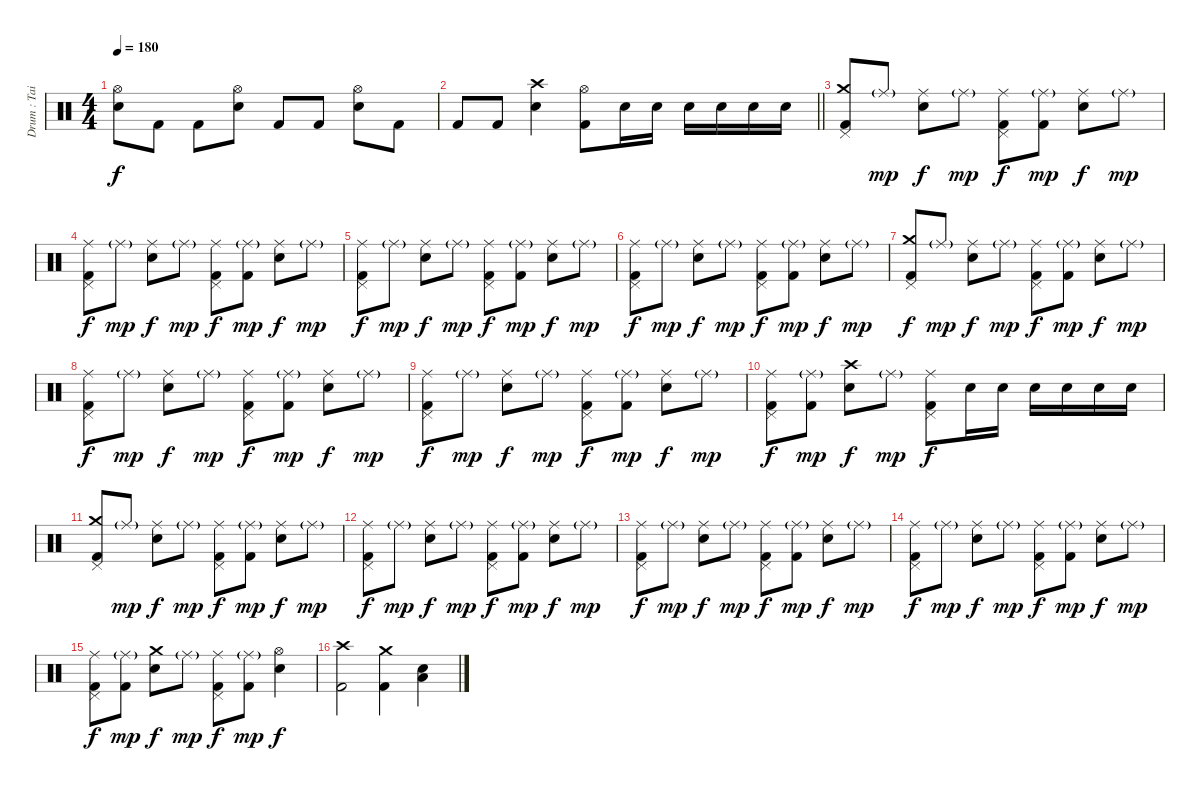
\track ("Drum : Tainaka Ritsu - Chan" "Drum : Tai") {instrument percussion}
\staff {score}
\articulation defaults
\ts (4 4)
\tempo 180
\clef neutral
\ks c
("Hi-Hat (open)" "Electric Snare (hit)").8{dy f} "Kick (hit) 2".8 "Kick (hit) 2".8 ("Hi-Hat (open)" "Electric Snare (hit)").8 "Kick (hit) 2".8 "Kick (hit) 2".8 ("Hi-Hat (open)" "Electric Snare (hit)").8 "Kick (hit) 2".8 |
\barLineRight lightlight "Kick (hit) 2".8 "Kick (hit) 2".8
("Crash high (hit)" "Electric Snare (hit)").4 ("Hi-Hat (open)" "Kick (hit) 2").8 "Electric Snare (hit)".16 "Electric Snare (hit)".16 "Electric Snare (hit)".16 "Electric Snare (hit)".16 "Electric Snare (hit)".16 "Electric Snare (hit)".16 |
("Crash medium (hit)" "Pedal Hi-Hat (hit)" "Kick (hit) 2").8 "Ride (middle)"{g}.8{dy mp} ("Ride (middle)" "Electric Snare (hit)").8{dy f} "Ride (middle)"{g}.8{dy mp} ("Ride (middle)" "Pedal Hi-Hat (hit)" "Kick (hit) 2").8{dy f} ("Ride (middle)"{g} "Kick (hit) 2").8{dy mp} ("Ride (middle)" "Electric Snare (hit)").8{dy f} "Ride (middle)"{g}.8{dy mp} |
("Ride (middle)" "Pedal Hi-Hat (hit)" "Kick (hit) 2").8{dy f} "Ride (middle)"{g}.8{dy mp} ("Ride (middle)" "Electric Snare (hit)").8{dy f} "Ride (middle)"{g}.8{dy mp} ("Ride (middle)" "Pedal Hi-Hat (hit)" "Kick (hit) 2").8{dy f} ("Ride (middle)"{g} "Kick (hit) 2").8{dy mp} ("Ride (middle)" "Electric Snare (hit)").8{dy f} "Ride (middle)"{g}.8{dy mp} |
("Ride (middle)" "Pedal Hi-Hat (hit)" "Kick (hit) 2").8{dy f} "Ride (middle)"{g}.8{dy mp} ("Ride (middle)" "Electric Snare (hit)").8{dy f} "Ride (middle)"{g}.8{dy mp} ("Ride (middle)" "Pedal Hi-Hat (hit)" "Kick (hit) 2").8{dy f} ("Ride (middle)"{g} "Kick (hit) 2").8{dy mp} ("Ride (middle)" "Electric Snare (hit)").8{dy f} "Ride (middle)"{g}.8{dy mp} |
("Ride (middle)" "Pedal Hi-Hat (hit)" "Kick (hit) 2").8{dy f} "Ride (middle)"{g}.8{dy mp} ("Ride (middle)" "Electric Snare (hit)").8{dy f} "Ride (middle)"{g}.8{dy mp} ("Ride (middle)" "Pedal Hi-Hat (hit)" "Kick (hit) 2").8{dy f} ("Ride (middle)"{g} "Kick (hit) 2").8{dy mp} ("Ride (middle)" "Electric Snare (hit)").8{dy f} "Ride (middle)"{g}.8{dy mp} |
("Crash medium (hit)" "Pedal Hi-Hat (hit)" "Kick (hit) 2").8{dy f} "Ride (middle)"{g}.8{dy mp} ("Ride (middle)" "Electric Snare (hit)").8{dy f} "Ride (middle)"{g}.8{dy mp} ("Ride (middle)" "Pedal Hi-Hat (hit)" "Kick (hit) 2").8{dy f} ("Ride (middle)"{g} "Kick (hit) 2").8{dy mp} ("Ride (middle)" "Electric Snare (hit)").8{dy f} "Ride (middle)"{g}.8{dy mp} |
("Ride (middle)" "Pedal Hi-Hat (hit)" "Kick (hit) 2").8{dy f} "Ride (middle)"{g}.8{dy mp} ("Ride (middle)" "Electric Snare (hit)").8{dy f} "Ride (middle)"{g}.8{dy mp} ("Ride (middle)" "Pedal Hi-Hat (hit)" "Kick (hit) 2").8{dy f} ("Ride (middle)"{g} "Kick (hit) 2").8{dy mp} ("Ride (middle)" "Electric Snare (hit)").8{dy f} "Ride (middle)"{g}.8{dy mp} |
("Ride (middle)" "Pedal Hi-Hat (hit)" "Kick (hit) 2").8{dy f} "Ride (middle)"{g}.8{dy mp} ("Ride (middle)" "Electric Snare (hit)").8{dy f} "Ride (middle)"{g}.8{dy mp} ("Ride (middle)" "Pedal Hi-Hat (hit)" "Kick (hit) 2").8{dy f} ("Ride (middle)"{g} "Kick (hit) 2").8{dy mp} ("Ride (middle)" "Electric Snare (hit)").8{dy f} "Ride (middle)"{g}.8{dy mp} |
("Ride (middle)" "Pedal Hi-Hat (hit)" "Kick (hit) 2").8{dy f} ("Ride (middle)"{g} "Kick (hit) 2").8{dy mp} ("Crash high (hit)" "Electric Snare (hit)").8{dy f} "Ride (middle)"{g}.8{dy mp} ("Ride (middle)" "Pedal Hi-Hat (hit)" "Kick (hit) 2").8{dy f} "Electric Snare (hit)".16 "Electric Snare (hit)".16 "Electric Snare (hit)".16 "Electric Snare (hit)".16 "Electric Snare (hit)".16 "Electric Snare (hit)".16 |
("Crash medium (hit)" "Pedal Hi-Hat (hit)" "Kick (hit) 2").8 "Ride (middle)"{g}.8{dy mp} ("Ride (middle)" "Electric Snare (hit)").8{dy f} "Ride (middle)"{g}.8{dy mp} ("Ride (middle)" "Pedal Hi-Hat (hit)" "Kick (hit) 2").8{dy f} ("Ride (middle)"{g} "Kick (hit) 2").8{dy mp} ("Ride (middle)" "Electric Snare (hit)").8{dy f} "Ride (middle)"{g}.8{dy mp} |
("Ride (middle)" "Pedal Hi-Hat (hit)" "Kick (hit) 2").8{dy f} "Ride (middle)"{g}.8{dy mp} ("Ride (middle)" "Electric Snare (hit)").8{dy f} "Ride (middle)"{g}.8{dy mp} ("Ride (middle)" "Pedal Hi-Hat (hit)" "Kick (hit) 2").8{dy f} ("Ride (middle)"{g} "Kick (hit) 2").8{dy mp} ("Ride (middle)" "Electric Snare (hit)").8{dy f} "Ride (middle)"{g}.8{dy mp} |
("Ride (middle)" "Pedal Hi-Hat (hit)" "Kick (hit) 2").8{dy f} "Ride (middle)"{g}.8{dy mp} ("Ride (middle)" "Electric Snare (hit)").8{dy f} "Ride (middle)"{g}.8{dy mp} ("Ride (middle)" "Pedal Hi-Hat (hit)" "Kick (hit) 2").8{dy f} ("Ride (middle)"{g} "Kick (hit) 2").8{dy mp} ("Ride (middle)" "Electric Snare (hit)").8{dy f} "Ride (middle)"{g}.8{dy mp} |
("Ride (middle)" "Pedal Hi-Hat (hit)" "Kick (hit) 2").8{dy f} "Ride (middle)"{g}.8{dy mp} ("Ride (middle)" "Electric Snare (hit)").8{dy f} "Ride (middle)"{g}.8{dy mp} ("Ride (middle)" "Pedal Hi-Hat (hit)" "Kick (hit) 2").8{dy f} ("Ride (middle)"{g} "Kick (hit) 2").8{dy mp} ("Ride (middle)" "Electric Snare (hit)").8{dy f} "Ride (middle)"{g}.8{dy mp} |
("Ride (middle)" "Pedal Hi-Hat (hit)" "Kick (hit) 2").8{dy f} ("Ride (middle)"{g} "Kick (hit) 2").8{dy mp} ("Crash medium (hit)" "Electric Snare (hit)").8{dy f} "Ride (middle)"{g}.8{dy mp} ("Ride (middle)" "Pedal Hi-Hat (hit)" "Kick (hit) 2").8{dy f} ("Ride (middle)"{g} "Kick (hit) 2").8{dy mp} ("Hi-Hat (open)" "Electric Snare (hit)").4{dy f} |
("Crash high (hit)" "Kick (hit) 2").2 ("Crash medium (hit)" "Kick (hit) 2").4 ("Electric Snare (hit)" "Low Floor Tom (hit)").4
